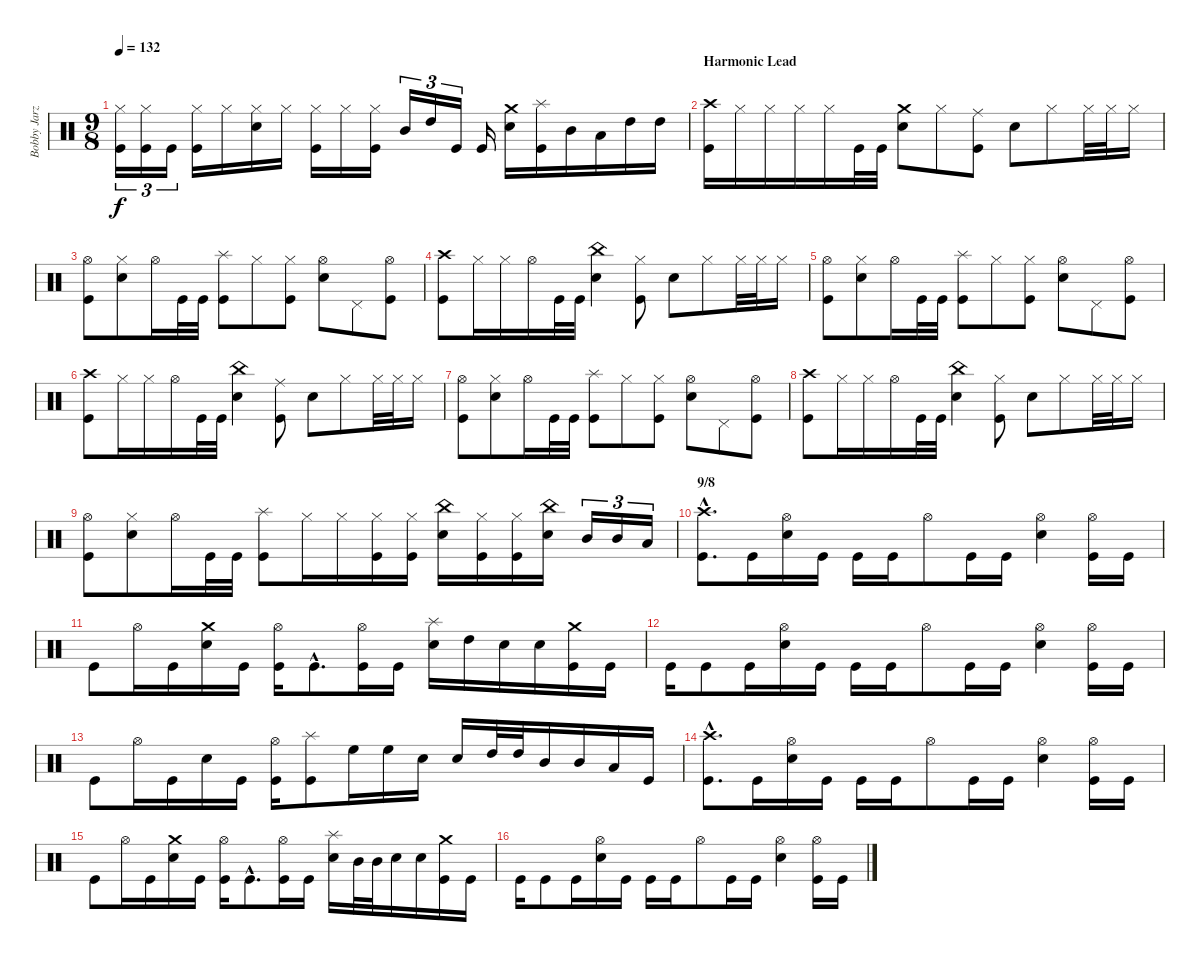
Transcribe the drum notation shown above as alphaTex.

\track ("Bobby Jarzombek" "Bobby Jarz") {instrument percussion}
\staff {score}
\articulation defaults
\ts (9 8)
\tempo 132
\clef neutral
\ks c
("Hi-Hat (closed)" "Kick (hit)").16{tu (3 2) dy f} ("Hi-Hat (closed)" "Kick (hit)").16{tu (3 2)} "Kick (hit)".16{tu (3 2)} ("Hi-Hat (closed)" "Kick (hit)").16 "Hi-Hat (closed)".16 ("Hi-Hat (closed)" "Electric Snare (hit)").16 "Hi-Hat (closed)".16 ("Hi-Hat (closed)" "Kick (hit)").16 "Hi-Hat (closed)".16 ("Hi-Hat (closed)" "Kick (hit)").16 "Mid Tom (hit)".16{tu (3 2)} "High Tom (hit)".16{tu (3 2)} "Kick (hit)".16{tu (3 2)} "Kick (hit)".16 ("Crash medium (hit)" "Electric Snare (hit)").16 ("Splash (hit)" "Kick (hit)").16 "Mid Tom (hit)".16 "Low Tom (hit)".16 "High Tom (hit)".16 "High Tom (hit)".16 |
\section ("" "Harmonic Lead")
("Crash high (hit)" "Kick (hit)").16 "Hi-Hat (closed)".16 "Hi-Hat (closed)".16 "Hi-Hat (closed)".16 "Hi-Hat (closed)".16 "Kick (hit)".32 "Kick (hit)".32 ("Crash medium (hit)" "Electric Snare (hit)").8 "Hi-Hat (closed)".8 ("Ride (middle)" "Kick (hit)").8 "Electric Snare (hit)".8 "Hi-Hat (closed)".8 "Hi-Hat (closed)".32 "Hi-Hat (closed)".32 "Hi-Hat (closed)".16 |
("Hi-Hat (open)" "Kick (hit)").8 ("Hi-Hat (closed)" "Electric Snare (hit)").8 "Hi-Hat (open)".16 "Kick (hit)".32 "Kick (hit)".32 ("Splash (hit)" "Kick (hit)").8 "Hi-Hat (closed)".8 ("Hi-Hat (closed)" "Kick (hit)").8 ("Hi-Hat (open)" "Electric Snare (hit)").8 "Pedal Hi-Hat (hit)".8 ("Hi-Hat (open)" "Kick (hit)").8 |
("Crash high (hit)" "Kick (hit)").8 "Hi-Hat (closed)".16 "Hi-Hat (closed)".16 "Hi-Hat (open)".16 "Kick (hit)".32 "Kick (hit)".32 ("China (hit)" "Electric Snare (hit)").4 ("Hi-Hat (closed)" "Kick (hit)").8 "Electric Snare (hit)".8 "Hi-Hat (closed)".8 "Hi-Hat (closed)".32 "Hi-Hat (closed)".32 "Hi-Hat (closed)".16 |
("Hi-Hat (open)" "Kick (hit)").8 ("Hi-Hat (closed)" "Electric Snare (hit)").8 "Hi-Hat (open)".16 "Kick (hit)".32 "Kick (hit)".32 ("Splash (hit)" "Kick (hit)").8 "Hi-Hat (closed)".8 ("Hi-Hat (closed)" "Kick (hit)").8 ("Hi-Hat (open)" "Electric Snare (hit)").8 "Pedal Hi-Hat (hit)".8 ("Hi-Hat (open)" "Kick (hit)").8 |
("Crash high (hit)" "Kick (hit)").8 "Hi-Hat (closed)".16 "Hi-Hat (closed)".16 "Hi-Hat (open)".16 "Kick (hit)".32 "Kick (hit)".32 ("China (hit)" "Electric Snare (hit)").4 ("Ride (middle)" "Kick (hit)").8 "Electric Snare (hit)".8 "Hi-Hat (closed)".8 "Hi-Hat (closed)".32 "Hi-Hat (closed)".32 "Hi-Hat (closed)".16 |
("Hi-Hat (open)" "Kick (hit)").8 ("Hi-Hat (closed)" "Electric Snare (hit)").8 "Hi-Hat (open)".16 "Kick (hit)".32 "Kick (hit)".32 ("Splash (hit)" "Kick (hit)").8 "Hi-Hat (closed)".8 ("Hi-Hat (closed)" "Kick (hit)").8 ("Hi-Hat (open)" "Electric Snare (hit)").8 "Pedal Hi-Hat (hit)".8 ("Hi-Hat (open)" "Kick (hit)").8 |
("Crash high (hit)" "Kick (hit)").8 "Hi-Hat (closed)".16 "Hi-Hat (closed)".16 "Hi-Hat (open)".16 "Kick (hit)".32 "Kick (hit)".32 ("China (hit)" "Electric Snare (hit)").4 ("Hi-Hat (closed)" "Kick (hit)").8 "Electric Snare (hit)".8 "Hi-Hat (closed)".8 "Hi-Hat (closed)".32 "Hi-Hat (closed)".32 "Hi-Hat (closed)".16 |
("Hi-Hat (open)" "Kick (hit)").8 ("Hi-Hat (closed)" "Electric Snare (hit)").8 "Hi-Hat (open)".16 "Kick (hit)".32 "Kick (hit)".32 ("Splash (hit)" "Kick (hit)").8 "Hi-Hat (closed)".16 "Hi-Hat (closed)".16 ("Hi-Hat (closed)" "Kick (hit)").16 ("Hi-Hat (closed)" "Kick (hit)").16 ("China (hit)" "Electric Snare (hit)").16 ("Hi-Hat (closed)" "Kick (hit)").16 ("Hi-Hat (closed)" "Kick (hit)").16 ("China (hit)" "Electric Snare (hit)").16 "Mid Tom (hit)".16{tu (3 2)} "Mid Tom (hit)".16{tu (3 2)} "Low Tom (hit)".16{tu (3 2)} |
\section ("" "9/8")
("Crash high (hit)"{hac} "Kick (hit)"{hac}).8{d} "Kick (hit)".16 ("Hi-Hat (open)" "Electric Snare (hit)").16 "Kick (hit)".16 "Kick (hit)".16 "Kick (hit)".16 "Hi-Hat (open)".8 "Kick (hit)".16 "Kick (hit)".16 ("Hi-Hat (open)" "Electric Snare (hit)").4 ("Hi-Hat (open)" "Kick (hit)").16 "Kick (hit)".16 |
"Kick (hit)".8 "Hi-Hat (open)".16 "Kick (hit)".16 ("Crash medium (hit)" "Electric Snare (hit)").16 "Kick (hit)".16 ("Hi-Hat (open)" "Kick (hit)").16 "Kick (hit)"{hac}.8{d} ("Hi-Hat (open)" "Kick (hit)").16 "Kick (hit)".16 ("Splash (hit)" "Electric Snare (hit)").16 "High Tom (hit)".16 "Electric Snare (hit)".16 "Electric Snare (hit)".16 ("Crash medium (hit)" "Kick (hit)").16 "Kick (hit)".16 |
"Kick (hit)".16 "Kick (hit)".8 "Kick (hit)".16 ("Hi-Hat (open)" "Electric Snare (hit)").16 "Kick (hit)".16 "Kick (hit)".16 "Kick (hit)".16 "Hi-Hat (open)".8 "Kick (hit)".16 "Kick (hit)".16 ("Hi-Hat (open)" "Electric Snare (hit)").4 ("Hi-Hat (open)" "Kick (hit)").16 "Kick (hit)".16 |
"Kick (hit)".8 "Hi-Hat (open)".16 "Kick (hit)".16 "Electric Snare (hit)".16 "Kick (hit)".16 ("Hi-Hat (open)" "Kick (hit)").16 ("Splash (hit)" "Kick (hit)").8 "High Floor Tom (hit)".16 "High Floor Tom (hit)".16 "Electric Snare (hit)".16 "Electric Snare (hit)".16 "High Tom (hit)".32 "High Tom (hit)".32 "Mid Tom (hit)".16 "Mid Tom (hit)".16 "Low Tom (hit)".16 "Kick (hit)".16 |
("Crash high (hit)"{hac} "Kick (hit)"{hac}).8{d} "Kick (hit)".16 ("Hi-Hat (open)" "Electric Snare (hit)").16 "Kick (hit)".16 "Kick (hit)".16 "Kick (hit)".16 "Hi-Hat (open)".8 "Kick (hit)".16 "Kick (hit)".16 ("Hi-Hat (open)" "Electric Snare (hit)").4 ("Hi-Hat (open)" "Kick (hit)").16 "Kick (hit)".16 |
"Kick (hit)".8 "Hi-Hat (open)".16 "Kick (hit)".16 ("Crash medium (hit)" "Electric Snare (hit)").16 "Kick (hit)".16 ("Hi-Hat (open)" "Kick (hit)").16 "Kick (hit)"{hac}.8{d} ("Hi-Hat (open)" "Kick (hit)").16 "Kick (hit)".16 ("Splash (hit)" "Electric Snare (hit)").16 "Mid Tom (hit)".32 "Mid Tom (hit)".32 "Electric Snare (hit)".16 "Electric Snare (hit)".16 ("Crash medium (hit)" "Kick (hit)").16 "Kick (hit)".16 |
"Kick (hit)".16 "Kick (hit)".8 "Kick (hit)".16 ("Hi-Hat (open)" "Electric Snare (hit)").16 "Kick (hit)".16 "Kick (hit)".16 "Kick (hit)".16 "Hi-Hat (open)".8 "Kick (hit)".16 "Kick (hit)".16 ("Hi-Hat (open)" "Electric Snare (hit)").4 ("Hi-Hat (open)" "Kick (hit)").16 "Kick (hit)".16
